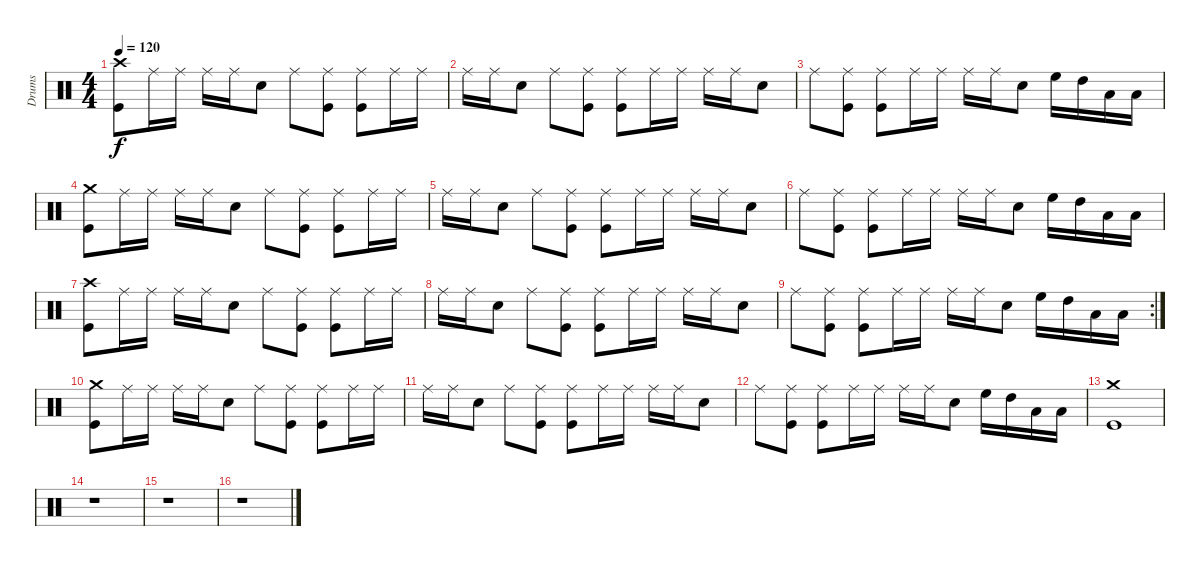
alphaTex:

\track ("Drums" "Drums") {instrument percussion}
\staff {score}
\articulation defaults
\ts (4 4)
\tempo 120
\clef neutral
\ks c
("Crash high (hit)" "Kick (hit)").8{dy f} "Ride (middle)".16 "Ride (middle)".16 "Ride (middle)".16 "Ride (middle)".16 "Electric Snare (hit)".8 "Ride (middle)".8 ("Ride (middle)" "Kick (hit)").8 ("Ride (middle)" "Kick (hit)").8 "Ride (middle)".16 "Ride (middle)".16 |
"Ride (middle)".16 "Ride (middle)".16 "Electric Snare (hit)".8 "Ride (middle)".8 ("Ride (middle)" "Kick (hit)").8 ("Ride (middle)" "Kick (hit)").8 "Ride (middle)".16 "Ride (middle)".16 "Ride (middle)".16 "Ride (middle)".16 "Electric Snare (hit)".8 |
"Ride (middle)".8 ("Ride (middle)" "Kick (hit)").8 ("Ride (middle)" "Kick (hit)").8 "Ride (middle)".16 "Ride (middle)".16 "Ride (middle)".16 "Ride (middle)".16 "Electric Snare (hit)".8 "High Floor Tom (hit)".16 "High Tom (hit)".16 "Low Tom (hit)".16 "Low Floor Tom (hit)".16 |
("Crash medium (hit)" "Kick (hit)").8 "Ride (middle)".16 "Ride (middle)".16 "Ride (middle)".16 "Ride (middle)".16 "Electric Snare (hit)".8 "Ride (middle)".8 ("Ride (middle)" "Kick (hit)").8 ("Ride (middle)" "Kick (hit)").8 "Ride (middle)".16 "Ride (middle)".16 |
"Ride (middle)".16 "Ride (middle)".16 "Electric Snare (hit)".8 "Ride (middle)".8 ("Ride (middle)" "Kick (hit)").8 ("Ride (middle)" "Kick (hit)").8 "Ride (middle)".16 "Ride (middle)".16 "Ride (middle)".16 "Ride (middle)".16 "Electric Snare (hit)".8 |
"Ride (middle)".8 ("Ride (middle)" "Kick (hit)").8 ("Ride (middle)" "Kick (hit)").8 "Ride (middle)".16 "Ride (middle)".16 "Ride (middle)".16 "Ride (middle)".16 "Electric Snare (hit)".8 "High Floor Tom (hit)".16 "High Tom (hit)".16 "Low Tom (hit)".16 "Low Floor Tom (hit)".16 |
("Crash high (hit)" "Kick (hit)").8 "Ride (middle)".16 "Ride (middle)".16 "Ride (middle)".16 "Ride (middle)".16 "Electric Snare (hit)".8 "Ride (middle)".8 ("Ride (middle)" "Kick (hit)").8 ("Ride (middle)" "Kick (hit)").8 "Ride (middle)".16 "Ride (middle)".16 |
"Ride (middle)".16 "Ride (middle)".16 "Electric Snare (hit)".8 "Ride (middle)".8 ("Ride (middle)" "Kick (hit)").8 ("Ride (middle)" "Kick (hit)").8 "Ride (middle)".16 "Ride (middle)".16 "Ride (middle)".16 "Ride (middle)".16 "Electric Snare (hit)".8 |
\rc 2 "Ride (middle)".8
("Ride (middle)" "Kick (hit)").8 ("Ride (middle)" "Kick (hit)").8 "Ride (middle)".16 "Ride (middle)".16 "Ride (middle)".16 "Ride (middle)".16 "Electric Snare (hit)".8 "High Floor Tom (hit)".16 "High Tom (hit)".16 "Low Tom (hit)".16 "Low Floor Tom (hit)".16 |
("Crash medium (hit)" "Kick (hit)").8 "Ride (middle)".16 "Ride (middle)".16 "Ride (middle)".16 "Ride (middle)".16 "Electric Snare (hit)".8 "Ride (middle)".8 ("Ride (middle)" "Kick (hit)").8 ("Ride (middle)" "Kick (hit)").8 "Ride (middle)".16 "Ride (middle)".16 |
"Ride (middle)".16 "Ride (middle)".16 "Electric Snare (hit)".8 "Ride (middle)".8 ("Ride (middle)" "Kick (hit)").8 ("Ride (middle)" "Kick (hit)").8 "Ride (middle)".16 "Ride (middle)".16 "Ride (middle)".16 "Ride (middle)".16 "Electric Snare (hit)".8 |
"Ride (middle)".8 ("Ride (middle)" "Kick (hit)").8 ("Ride (middle)" "Kick (hit)").8 "Ride (middle)".16 "Ride (middle)".16 "Ride (middle)".16 "Ride (middle)".16 "Electric Snare (hit)".8 "High Floor Tom (hit)".16 "High Tom (hit)".16 "Low Tom (hit)".16 "Low Floor Tom (hit)".16 |
("Crash medium (hit)" "Kick (hit)").1 |
r.1 |
r.1 |
r.1
